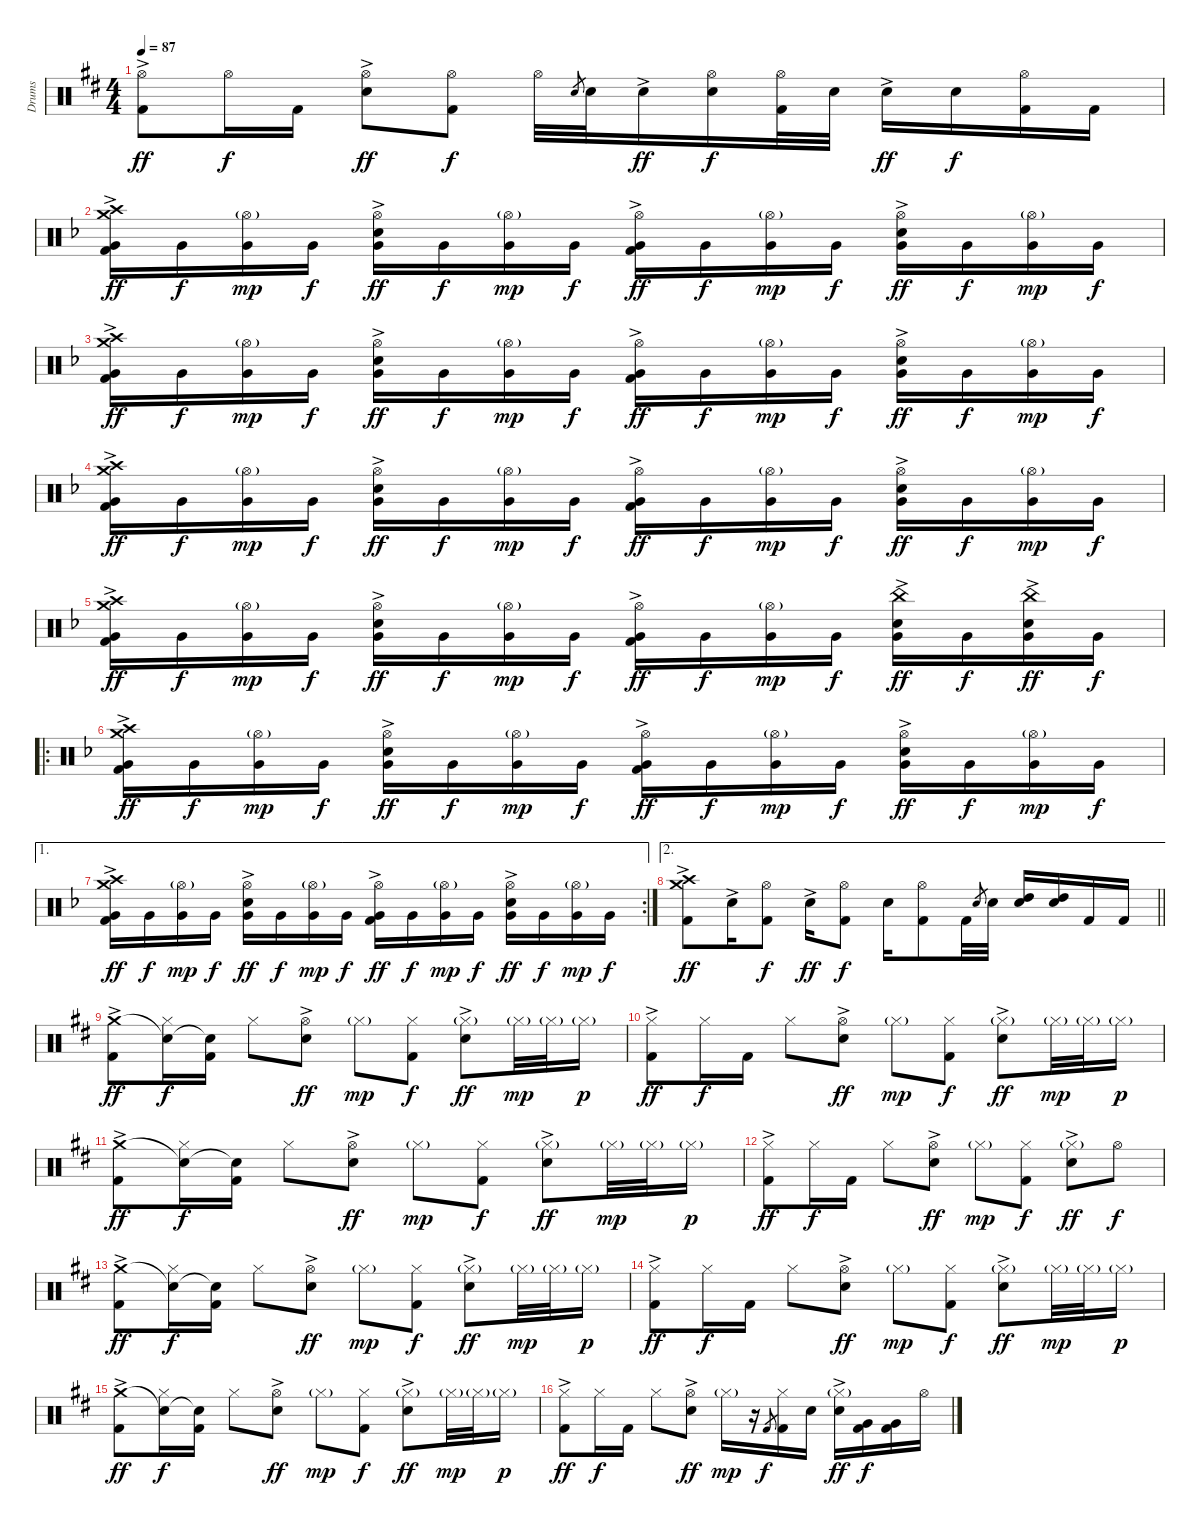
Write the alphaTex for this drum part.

\track ("Drums" "Drums") {instrument percussion}
\staff {score}
\articulation defaults
\ts (4 4)
\tempo 87
\clef neutral
\ks d
("Hi-Hat (open)" "Kick (hit) 2"{ac}).8{dy ff} "Hi-Hat (open)".16{dy f} "Kick (hit) 2".16 ("Hi-Hat (open)" "Electric Snare (hit)"{ac}).8{dy ff} ("Hi-Hat (open)" "Kick (hit) 2").8{dy f} "Hi-Hat (open)".32 "Electric Snare (hit)".8{gr} "Electric Snare (hit)".32 "Electric Snare (hit)"{ac}.16{dy ff} ("Hi-Hat (open)" "Electric Snare (hit)").16{dy f} ("Hi-Hat (open)" "Kick (hit) 2").32 "Electric Snare (hit)".32 "Electric Snare (hit)"{ac}.16{dy ff} "Electric Snare (hit)".16{dy f} ("Hi-Hat (open)" "Kick (hit) 2").16 "Kick (hit) 2".16 |
\ks f
("Crash high (hit)"{ac} "Crash medium (hit)" "Very Low Tom (hit)" "Kick (hit) 2"{ac}).16{dy ff} "Very Low Tom (hit)".16{dy f} ("Hi-Hat (open)"{g} "Very Low Tom (hit)").16{dy mp} "Very Low Tom (hit)".16{dy f} ("Hi-Hat (open)" "Very Low Tom (hit)" "Electric Snare (hit)"{ac}).16{dy ff} "Very Low Tom (hit)".16{dy f} ("Hi-Hat (open)"{g} "Very Low Tom (hit)").16{dy mp} "Very Low Tom (hit)".16{dy f} ("Hi-Hat (open)" "Very Low Tom (hit)" "Kick (hit) 2"{ac}).16{dy ff} "Very Low Tom (hit)".16{dy f} ("Hi-Hat (open)"{g} "Very Low Tom (hit)").16{dy mp} "Very Low Tom (hit)".16{dy f} ("Hi-Hat (open)" "Very Low Tom (hit)" "Electric Snare (hit)"{ac}).16{dy ff} "Very Low Tom (hit)".16{dy f} ("Hi-Hat (open)"{g} "Very Low Tom (hit)").16{dy mp} "Very Low Tom (hit)".16{dy f} |
("Crash high (hit)"{ac} "Crash medium (hit)" "Very Low Tom (hit)" "Kick (hit) 2"{ac}).16{dy ff} "Very Low Tom (hit)".16{dy f} ("Hi-Hat (open)"{g} "Very Low Tom (hit)").16{dy mp} "Very Low Tom (hit)".16{dy f} ("Hi-Hat (open)" "Very Low Tom (hit)" "Electric Snare (hit)"{ac}).16{dy ff} "Very Low Tom (hit)".16{dy f} ("Hi-Hat (open)"{g} "Very Low Tom (hit)").16{dy mp} "Very Low Tom (hit)".16{dy f} ("Hi-Hat (open)" "Very Low Tom (hit)" "Kick (hit) 2"{ac}).16{dy ff} "Very Low Tom (hit)".16{dy f} ("Hi-Hat (open)"{g} "Very Low Tom (hit)").16{dy mp} "Very Low Tom (hit)".16{dy f} ("Hi-Hat (open)" "Very Low Tom (hit)" "Electric Snare (hit)"{ac}).16{dy ff} "Very Low Tom (hit)".16{dy f} ("Hi-Hat (open)"{g} "Very Low Tom (hit)").16{dy mp} "Very Low Tom (hit)".16{dy f} |
("Crash high (hit)"{ac} "Crash medium (hit)" "Very Low Tom (hit)" "Kick (hit) 2"{ac}).16{dy ff} "Very Low Tom (hit)".16{dy f} ("Hi-Hat (open)"{g} "Very Low Tom (hit)").16{dy mp} "Very Low Tom (hit)".16{dy f} ("Hi-Hat (open)" "Very Low Tom (hit)" "Electric Snare (hit)"{ac}).16{dy ff} "Very Low Tom (hit)".16{dy f} ("Hi-Hat (open)"{g} "Very Low Tom (hit)").16{dy mp} "Very Low Tom (hit)".16{dy f} ("Hi-Hat (open)" "Very Low Tom (hit)" "Kick (hit) 2"{ac}).16{dy ff} "Very Low Tom (hit)".16{dy f} ("Hi-Hat (open)"{g} "Very Low Tom (hit)").16{dy mp} "Very Low Tom (hit)".16{dy f} ("Hi-Hat (open)" "Very Low Tom (hit)" "Electric Snare (hit)"{ac}).16{dy ff} "Very Low Tom (hit)".16{dy f} ("Hi-Hat (open)"{g} "Very Low Tom (hit)").16{dy mp} "Very Low Tom (hit)".16{dy f} |
("Crash high (hit)"{ac} "Crash medium (hit)" "Very Low Tom (hit)" "Kick (hit) 2"{ac}).16{dy ff} "Very Low Tom (hit)".16{dy f} ("Hi-Hat (open)"{g} "Very Low Tom (hit)").16{dy mp} "Very Low Tom (hit)".16{dy f} ("Hi-Hat (open)" "Very Low Tom (hit)" "Electric Snare (hit)"{ac}).16{dy ff} "Very Low Tom (hit)".16{dy f} ("Hi-Hat (open)"{g} "Very Low Tom (hit)").16{dy mp} "Very Low Tom (hit)".16{dy f} ("Hi-Hat (open)" "Very Low Tom (hit)" "Kick (hit) 2"{ac}).16{dy ff} "Very Low Tom (hit)".16{dy f} ("Hi-Hat (open)"{g} "Very Low Tom (hit)").16{dy mp} "Very Low Tom (hit)".16{dy f} ("China (hit)"{ac} "Very Low Tom (hit)" "Electric Snare (hit)"{ac}).16{dy ff} "Very Low Tom (hit)".16{dy f} ("China (hit)"{ac} "Very Low Tom (hit)" "Electric Snare (hit)").16{dy ff} "Very Low Tom (hit)".16{dy f} |
\ro
("Crash high (hit)"{ac} "Crash medium (hit)" "Very Low Tom (hit)" "Kick (hit) 2"{ac}).16{dy ff} "Very Low Tom (hit)".16{dy f} ("Hi-Hat (open)"{g} "Very Low Tom (hit)").16{dy mp} "Very Low Tom (hit)".16{dy f} ("Hi-Hat (open)" "Very Low Tom (hit)" "Electric Snare (hit)"{ac}).16{dy ff} "Very Low Tom (hit)".16{dy f} ("Hi-Hat (open)"{g} "Very Low Tom (hit)").16{dy mp} "Very Low Tom (hit)".16{dy f} ("Hi-Hat (open)" "Very Low Tom (hit)" "Kick (hit) 2"{ac}).16{dy ff} "Very Low Tom (hit)".16{dy f} ("Hi-Hat (open)"{g} "Very Low Tom (hit)").16{dy mp} "Very Low Tom (hit)".16{dy f} ("Hi-Hat (open)" "Very Low Tom (hit)" "Electric Snare (hit)"{ac}).16{dy ff} "Very Low Tom (hit)".16{dy f} ("Hi-Hat (open)"{g} "Very Low Tom (hit)").16{dy mp} "Very Low Tom (hit)".16{dy f} |
\ae 1
\rc 2
("Crash high (hit)"{ac} "Crash medium (hit)" "Very Low Tom (hit)" "Kick (hit) 2"{ac}).16{dy ff} "Very Low Tom (hit)".16{dy f} ("Hi-Hat (open)"{g} "Very Low Tom (hit)").16{dy mp} "Very Low Tom (hit)".16{dy f} ("Hi-Hat (open)" "Very Low Tom (hit)" "Electric Snare (hit)"{ac}).16{dy ff} "Very Low Tom (hit)".16{dy f} ("Hi-Hat (open)"{g} "Very Low Tom (hit)").16{dy mp} "Very Low Tom (hit)".16{dy f} ("Hi-Hat (open)" "Very Low Tom (hit)" "Kick (hit) 2"{ac}).16{dy ff} "Very Low Tom (hit)".16{dy f} ("Hi-Hat (open)"{g} "Very Low Tom (hit)").16{dy mp} "Very Low Tom (hit)".16{dy f} ("Hi-Hat (open)" "Very Low Tom (hit)" "Electric Snare (hit)"{ac}).16{dy ff} "Very Low Tom (hit)".16{dy f} ("Hi-Hat (open)"{g} "Very Low Tom (hit)").16{dy mp} "Very Low Tom (hit)".16{dy f} |
\ae 2
\barLineRight lightlight
("Crash high (hit)" "Crash medium (hit)" "Kick (hit) 2"{ac}).8{dy ff} "Electric Snare (hit)"{ac}.16 ("Hi-Hat (open)" "Kick (hit) 2").8{dy f} "Electric Snare (hit)"{ac}.16{dy ff} ("Hi-Hat (open)" "Kick (hit) 2").8{dy f} "Electric Snare (hit)".16 ("Hi-Hat (open)" "Kick (hit) 2").8 "Kick (hit) 2".32 "Electric Snare (hit)".8{gr} "Electric Snare (hit)".32 ("High Tom (hit)" "Electric Snare (hit)").16 ("High Tom (hit)" "Electric Snare (hit)").16 "Kick (hit) 2".16 "Kick (hit) 2".16 |
\ks d
("Crash medium (hit)" "Kick (hit) 2"{ac}).8{dy ff} ("Snare (hit)"{t} "Hi-Hat (closed)").16{dy f} ("Snare (hit)"{t} "Kick (hit) 2").16 "Hi-Hat (closed)".8 ("Hi-Hat (open)" "Electric Snare (hit)"{ac}).8{dy ff} "Hi-Hat (closed)"{g}.8{dy mp} ("Hi-Hat (closed)" "Kick (hit) 2").8{dy f} ("Hi-Hat (closed)"{g} "Electric Snare (hit)"{ac}).8{dy ff} "Hi-Hat (closed)"{g}.32{dy mp} "Hi-Hat (closed)"{g}.32 "Hi-Hat (closed)"{g}.16{dy p} |
("Hi-Hat (closed)" "Kick (hit) 2"{ac}).8{dy ff} "Hi-Hat (closed)".16{dy f} "Kick (hit) 2".16 "Hi-Hat (closed)".8 ("Hi-Hat (open)" "Electric Snare (hit)"{ac}).8{dy ff} "Hi-Hat (closed)"{g}.8{dy mp} ("Hi-Hat (closed)" "Kick (hit) 2").8{dy f} ("Hi-Hat (closed)"{g} "Electric Snare (hit)"{ac}).8{dy ff} "Hi-Hat (closed)"{g}.32{dy mp} "Hi-Hat (closed)"{g}.32 "Hi-Hat (closed)"{g}.16{dy p} |
("Crash medium (hit)" "Kick (hit) 2"{ac}).8{dy ff} ("Snare (hit)"{t} "Hi-Hat (closed)").16{dy f} ("Snare (hit)"{t} "Kick (hit) 2").16 "Hi-Hat (closed)".8 ("Hi-Hat (open)" "Electric Snare (hit)"{ac}).8{dy ff} "Hi-Hat (closed)"{g}.8{dy mp} ("Hi-Hat (closed)" "Kick (hit) 2").8{dy f} ("Hi-Hat (closed)"{g} "Electric Snare (hit)"{ac}).8{dy ff} "Hi-Hat (closed)"{g}.32{dy mp} "Hi-Hat (closed)"{g}.32 "Hi-Hat (closed)"{g}.16{dy p} |
("Hi-Hat (closed)" "Kick (hit) 2"{ac}).8{dy ff} "Hi-Hat (closed)".16{dy f} "Kick (hit) 2".16 "Hi-Hat (closed)".8 ("Hi-Hat (open)" "Electric Snare (hit)"{ac}).8{dy ff} "Hi-Hat (closed)"{g}.8{dy mp} ("Hi-Hat (closed)" "Kick (hit) 2").8{dy f} ("Hi-Hat (closed)"{g} "Electric Snare (hit)"{ac}).8{dy ff} "Hi-Hat (open)".8{dy f} |
("Crash medium (hit)" "Kick (hit) 2"{ac}).8{dy ff} ("Snare (hit)"{t} "Hi-Hat (closed)").16{dy f} ("Snare (hit)"{t} "Kick (hit) 2").16 "Hi-Hat (closed)".8 ("Hi-Hat (open)" "Electric Snare (hit)"{ac}).8{dy ff} "Hi-Hat (closed)"{g}.8{dy mp} ("Hi-Hat (closed)" "Kick (hit) 2").8{dy f} ("Hi-Hat (closed)"{g} "Electric Snare (hit)"{ac}).8{dy ff} "Hi-Hat (closed)"{g}.32{dy mp} "Hi-Hat (closed)"{g}.32 "Hi-Hat (closed)"{g}.16{dy p} |
("Hi-Hat (closed)" "Kick (hit) 2"{ac}).8{dy ff} "Hi-Hat (closed)".16{dy f} "Kick (hit) 2".16 "Hi-Hat (closed)".8 ("Hi-Hat (open)" "Electric Snare (hit)"{ac}).8{dy ff} "Hi-Hat (closed)"{g}.8{dy mp} ("Hi-Hat (closed)" "Kick (hit) 2").8{dy f} ("Hi-Hat (closed)"{g} "Electric Snare (hit)"{ac}).8{dy ff} "Hi-Hat (closed)"{g}.32{dy mp} "Hi-Hat (closed)"{g}.32 "Hi-Hat (closed)"{g}.16{dy p} |
("Crash medium (hit)" "Kick (hit) 2"{ac}).8{dy ff} ("Snare (hit)"{t} "Hi-Hat (closed)").16{dy f} ("Snare (hit)"{t} "Kick (hit) 2").16 "Hi-Hat (closed)".8 ("Hi-Hat (open)" "Electric Snare (hit)"{ac}).8{dy ff} "Hi-Hat (closed)"{g}.8{dy mp} ("Hi-Hat (closed)" "Kick (hit) 2").8{dy f} ("Hi-Hat (closed)"{g} "Electric Snare (hit)"{ac}).8{dy ff} "Hi-Hat (closed)"{g}.32{dy mp} "Hi-Hat (closed)"{g}.32 "Hi-Hat (closed)"{g}.16{dy p} |
("Hi-Hat (closed)" "Kick (hit) 2"{ac}).8{dy ff} "Hi-Hat (closed)".16{dy f} "Kick (hit) 2".16 "Hi-Hat (closed)".8 ("Hi-Hat (open)" "Electric Snare (hit)"{ac}).8{dy ff} "Hi-Hat (closed)"{g}.16{dy mp} r.16 "Kick (hit) 2".8{gr dy f} ("Hi-Hat (closed)" "Kick (hit) 2").16 "Electric Snare (hit)".16 ("Hi-Hat (closed)"{g} "Electric Snare (hit)"{ac}).16{dy ff} ("Very Low Tom (hit)" "Kick (hit) 2").16{dy f} ("Very Low Tom (hit)" "Kick (hit) 2").16 "Hi-Hat (open)".16
